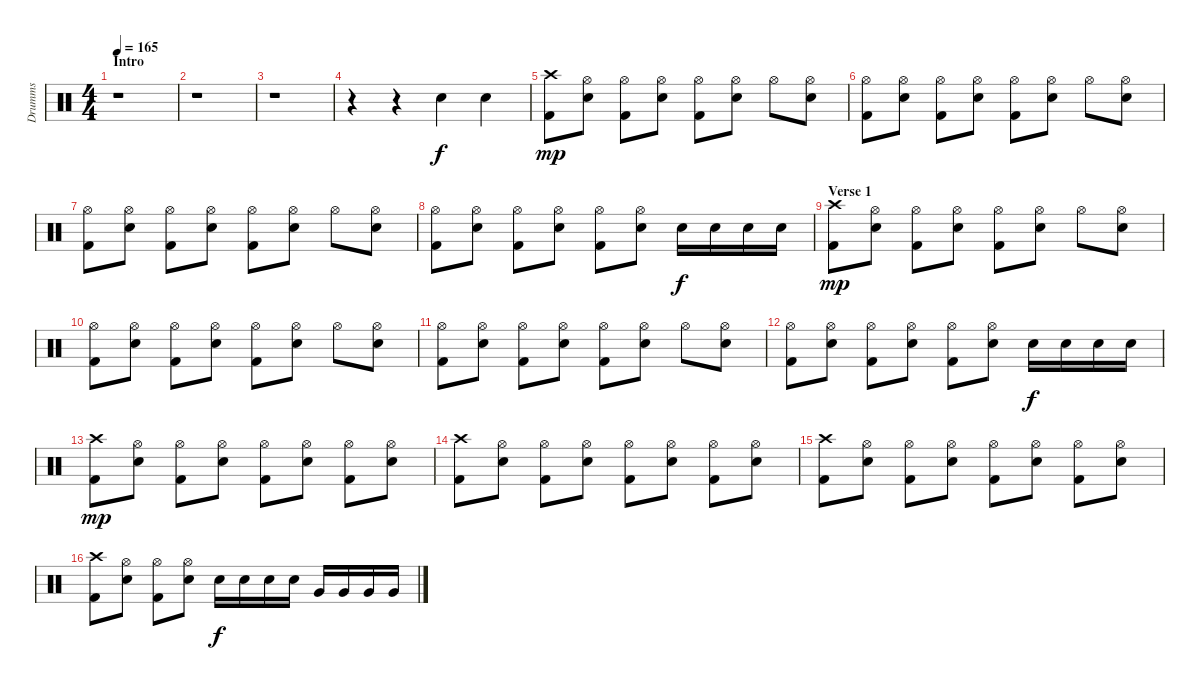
\track ("Drumms" "Drumms") {instrument percussion}
\staff {score}
\articulation defaults
\ts (4 4)
\section ("" "Intro")
\tempo 165
\clef neutral
\ks c
r.1{dy f} |
r.1 |
r.1 |
r.4 r.4 "Electric Snare (hit)".4 "Electric Snare (hit)".4 |
("Crash high (hit)" "Kick (hit) 2").8{dy mp} ("Hi-Hat (open)" "Electric Snare (hit)").8 ("Hi-Hat (open)" "Kick (hit) 2").8 ("Hi-Hat (open)" "Electric Snare (hit)").8 ("Hi-Hat (open)" "Kick (hit) 2").8 ("Hi-Hat (open)" "Electric Snare (hit)").8 "Hi-Hat (open)".8 ("Hi-Hat (open)" "Electric Snare (hit)").8 |
("Hi-Hat (open)" "Kick (hit) 2").8 ("Hi-Hat (open)" "Electric Snare (hit)").8 ("Hi-Hat (open)" "Kick (hit) 2").8 ("Hi-Hat (open)" "Electric Snare (hit)").8 ("Hi-Hat (open)" "Kick (hit) 2").8 ("Hi-Hat (open)" "Electric Snare (hit)").8 "Hi-Hat (open)".8 ("Hi-Hat (open)" "Electric Snare (hit)").8 |
("Hi-Hat (open)" "Kick (hit) 2").8 ("Hi-Hat (open)" "Electric Snare (hit)").8 ("Hi-Hat (open)" "Kick (hit) 2").8 ("Hi-Hat (open)" "Electric Snare (hit)").8 ("Hi-Hat (open)" "Kick (hit) 2").8 ("Hi-Hat (open)" "Electric Snare (hit)").8 "Hi-Hat (open)".8 ("Hi-Hat (open)" "Electric Snare (hit)").8 |
("Hi-Hat (open)" "Kick (hit) 2").8 ("Hi-Hat (open)" "Electric Snare (hit)").8 ("Hi-Hat (open)" "Kick (hit) 2").8 ("Hi-Hat (open)" "Electric Snare (hit)").8 ("Hi-Hat (open)" "Kick (hit) 2").8 ("Hi-Hat (open)" "Electric Snare (hit)").8 "Electric Snare (hit)".16{dy f} "Electric Snare (hit)".16 "Electric Snare (hit)".16 "Electric Snare (hit)".16 |
\section ("" "Verse 1")
("Crash high (hit)" "Kick (hit) 2").8{dy mp} ("Hi-Hat (open)" "Electric Snare (hit)").8 ("Hi-Hat (open)" "Kick (hit) 2").8 ("Hi-Hat (open)" "Electric Snare (hit)").8 ("Hi-Hat (open)" "Kick (hit) 2").8 ("Hi-Hat (open)" "Electric Snare (hit)").8 "Hi-Hat (open)".8 ("Hi-Hat (open)" "Electric Snare (hit)").8 |
("Hi-Hat (open)" "Kick (hit) 2").8 ("Hi-Hat (open)" "Electric Snare (hit)").8 ("Hi-Hat (open)" "Kick (hit) 2").8 ("Hi-Hat (open)" "Electric Snare (hit)").8 ("Hi-Hat (open)" "Kick (hit) 2").8 ("Hi-Hat (open)" "Electric Snare (hit)").8 "Hi-Hat (open)".8 ("Hi-Hat (open)" "Electric Snare (hit)").8 |
("Hi-Hat (open)" "Kick (hit) 2").8 ("Hi-Hat (open)" "Electric Snare (hit)").8 ("Hi-Hat (open)" "Kick (hit) 2").8 ("Hi-Hat (open)" "Electric Snare (hit)").8 ("Hi-Hat (open)" "Kick (hit) 2").8 ("Hi-Hat (open)" "Electric Snare (hit)").8 "Hi-Hat (open)".8 ("Hi-Hat (open)" "Electric Snare (hit)").8 |
("Hi-Hat (open)" "Kick (hit) 2").8 ("Hi-Hat (open)" "Electric Snare (hit)").8 ("Hi-Hat (open)" "Kick (hit) 2").8 ("Hi-Hat (open)" "Electric Snare (hit)").8 ("Hi-Hat (open)" "Kick (hit) 2").8 ("Hi-Hat (open)" "Electric Snare (hit)").8 "Electric Snare (hit)".16{dy f} "Electric Snare (hit)".16 "Electric Snare (hit)".16 "Electric Snare (hit)".16 |
("Crash high (hit)" "Kick (hit) 2").8{dy mp} ("Hi-Hat (open)" "Electric Snare (hit)").8 ("Hi-Hat (open)" "Kick (hit) 2").8 ("Hi-Hat (open)" "Electric Snare (hit)").8 ("Hi-Hat (open)" "Kick (hit) 2").8 ("Hi-Hat (open)" "Electric Snare (hit)").8 ("Hi-Hat (open)" "Kick (hit) 2").8 ("Hi-Hat (open)" "Electric Snare (hit)").8 |
("Crash high (hit)" "Kick (hit) 2").8 ("Hi-Hat (open)" "Electric Snare (hit)").8 ("Hi-Hat (open)" "Kick (hit) 2").8 ("Hi-Hat (open)" "Electric Snare (hit)").8 ("Hi-Hat (open)" "Kick (hit) 2").8 ("Hi-Hat (open)" "Electric Snare (hit)").8 ("Hi-Hat (open)" "Kick (hit) 2").8 ("Hi-Hat (open)" "Electric Snare (hit)").8 |
("Crash high (hit)" "Kick (hit) 2").8 ("Hi-Hat (open)" "Electric Snare (hit)").8 ("Hi-Hat (open)" "Kick (hit) 2").8 ("Hi-Hat (open)" "Electric Snare (hit)").8 ("Hi-Hat (open)" "Kick (hit) 2").8 ("Hi-Hat (open)" "Electric Snare (hit)").8 ("Hi-Hat (open)" "Kick (hit) 2").8 ("Hi-Hat (open)" "Electric Snare (hit)").8 |
("Crash high (hit)" "Kick (hit) 2").8 ("Hi-Hat (open)" "Electric Snare (hit)").8 ("Hi-Hat (open)" "Kick (hit) 2").8 ("Hi-Hat (open)" "Electric Snare (hit)").8 "Electric Snare (hit)".16{dy f} "Electric Snare (hit)".16 "Electric Snare (hit)".16 "Electric Snare (hit)".16 "Very Low Tom (hit)".16 "Very Low Tom (hit)".16 "Very Low Tom (hit)".16 "Very Low Tom (hit)".16
